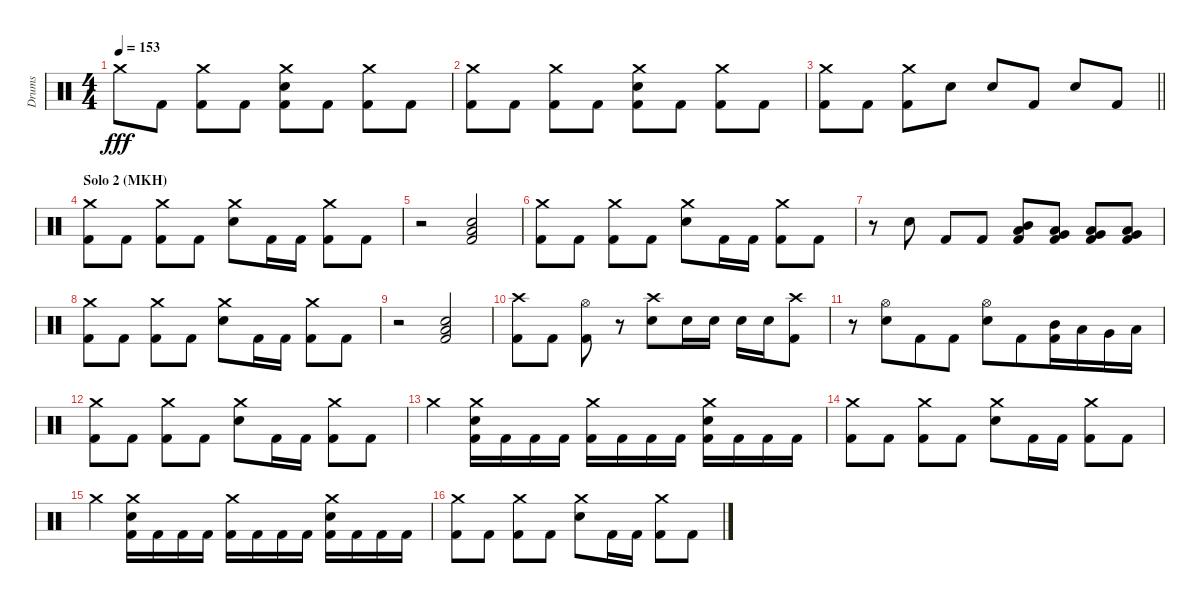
\track ("Drums" "Drums") {instrument percussion}
\staff {score}
\articulation defaults
\ts (4 4)
\tempo 153
\clef neutral
\ks c "Crash medium (hit)".8{dy fff} "Kick (hit) 2".8
("Crash medium (hit)" "Kick (hit) 2").8 "Kick (hit) 2".8 ("Crash medium (hit)" "Snare (hit) 2" "Kick (hit) 2").8 "Kick (hit) 2".8 ("Crash medium (hit)" "Kick (hit) 2").8 "Kick (hit) 2".8 |
("Crash medium (hit)" "Kick (hit) 2").8 "Kick (hit) 2".8 ("Crash medium (hit)" "Kick (hit) 2").8 "Kick (hit) 2".8 ("Crash medium (hit)" "Snare (hit) 2" "Kick (hit) 2").8 "Kick (hit) 2".8 ("Crash medium (hit)" "Kick (hit) 2").8 "Kick (hit) 2".8 |
\barLineRight lightlight
("Crash medium (hit)" "Kick (hit) 2").8 "Kick (hit) 2".8 ("Crash medium (hit)" "Kick (hit) 2").8 "Snare (hit) 2".8 "Snare (hit) 2".8 "Kick (hit) 2".8 "Snare (hit) 2".8 "Kick (hit) 2".8 |
\section ("" "Solo 2 (MKH)")
("Crash medium (hit)" "Kick (hit) 2").8 "Kick (hit) 2".8 ("Crash medium (hit)" "Kick (hit) 2").8 "Kick (hit) 2".8 ("Crash medium (hit)" "Snare (hit) 2").8 "Kick (hit) 2".16 "Kick (hit) 2".16 ("Crash medium (hit)" "Kick (hit) 2").8 "Kick (hit) 2".8 |
r.2 ("Low Floor Tom (hit)" "Kick (hit) 2" "Snare (hit) 2").2 |
("Crash medium (hit)" "Kick (hit) 2").8 "Kick (hit) 2".8 ("Crash medium (hit)" "Kick (hit) 2").8 "Kick (hit) 2".8 ("Crash medium (hit)" "Snare (hit) 2").8 "Kick (hit) 2".16 "Kick (hit) 2".16 ("Crash medium (hit)" "Kick (hit) 2").8 "Kick (hit) 2".8 |
r.8 "Snare (hit) 2".8 "Kick (hit) 2".8 "Kick (hit) 2".8 ("Mid Tom (hit)" "Low Tom (hit)" "Kick (hit) 2").8 ("Low Tom (hit)" "Kick (hit) 2" "Very Low Tom (hit)").8 ("Low Tom (hit)" "Very Low Tom (hit)" "Kick (hit) 2").8 ("Very Low Tom (hit)" "Kick (hit) 2" "Low Floor Tom (hit)").8 |
("Crash medium (hit)" "Kick (hit) 2").8 "Kick (hit) 2".8 ("Crash medium (hit)" "Kick (hit) 2").8 "Kick (hit) 2".8 ("Crash medium (hit)" "Snare (hit) 2").8 "Kick (hit) 2".16 "Kick (hit) 2".16 ("Crash medium (hit)" "Kick (hit) 2").8 "Kick (hit) 2".8 |
r.2 ("Low Floor Tom (hit)" "Kick (hit) 2" "Snare (hit) 2").2 |
("Crash high (hit)" "Kick (hit) 2").8 "Kick (hit) 2".8 ("Hi-Hat (open)" "Kick (hit) 2").8 r.8{beam merge} ("Crash high (hit)" "Snare (hit) 2").8 "Snare (hit) 2".16 "Snare (hit) 2".16 "Snare (hit) 2".16{beam merge} "Snare (hit) 2".16 ("Crash high (hit)" "Kick (hit) 2").8 |
r.8 ("Hi-Hat (open)" "Snare (hit) 2").8{beam merge} "Kick (hit) 2".8{beam merge} "Kick (hit) 2".8 ("Hi-Hat (open)" "Snare (hit) 2").8{beam merge} "Kick (hit) 2".8{beam merge} ("Mid Tom (hit)" "Kick (hit) 2").16 "Low Tom (hit)".16{beam merge} "Very Low Tom (hit)".16 "Low Floor Tom (hit)".16 |
("Crash medium (hit)" "Kick (hit) 2").8 "Kick (hit) 2".8 ("Crash medium (hit)" "Kick (hit) 2").8 "Kick (hit) 2".8 ("Crash medium (hit)" "Snare (hit) 2").8 "Kick (hit) 2".16 "Kick (hit) 2".16 ("Crash medium (hit)" "Kick (hit) 2").8 "Kick (hit) 2".8 |
"Crash medium (hit)".4 ("Crash medium (hit)" "Snare (hit) 2" "Kick (hit) 2").16 "Kick (hit) 2".16 "Kick (hit) 2".16 "Kick (hit) 2".16 ("Crash medium (hit)" "Kick (hit) 2").16 "Kick (hit) 2".16 "Kick (hit) 2".16 "Kick (hit) 2".16 ("Crash medium (hit)" "Snare (hit) 2" "Kick (hit) 2").16 "Kick (hit) 2".16 "Kick (hit) 2".16 "Kick (hit) 2".16 |
("Crash medium (hit)" "Kick (hit) 2").8 "Kick (hit) 2".8 ("Crash medium (hit)" "Kick (hit) 2").8 "Kick (hit) 2".8 ("Crash medium (hit)" "Snare (hit) 2").8 "Kick (hit) 2".16 "Kick (hit) 2".16 ("Crash medium (hit)" "Kick (hit) 2").8 "Kick (hit) 2".8 |
"Crash medium (hit)".4 ("Crash medium (hit)" "Snare (hit) 2" "Kick (hit) 2").16 "Kick (hit) 2".16 "Kick (hit) 2".16 "Kick (hit) 2".16 ("Crash medium (hit)" "Kick (hit) 2").16 "Kick (hit) 2".16 "Kick (hit) 2".16 "Kick (hit) 2".16 ("Crash medium (hit)" "Snare (hit) 2" "Kick (hit) 2").16 "Kick (hit) 2".16 "Kick (hit) 2".16 "Kick (hit) 2".16 |
("Crash medium (hit)" "Kick (hit) 2").8 "Kick (hit) 2".8 ("Crash medium (hit)" "Kick (hit) 2").8 "Kick (hit) 2".8 ("Crash medium (hit)" "Snare (hit) 2").8 "Kick (hit) 2".16 "Kick (hit) 2".16 ("Crash medium (hit)" "Kick (hit) 2").8 "Kick (hit) 2".8
